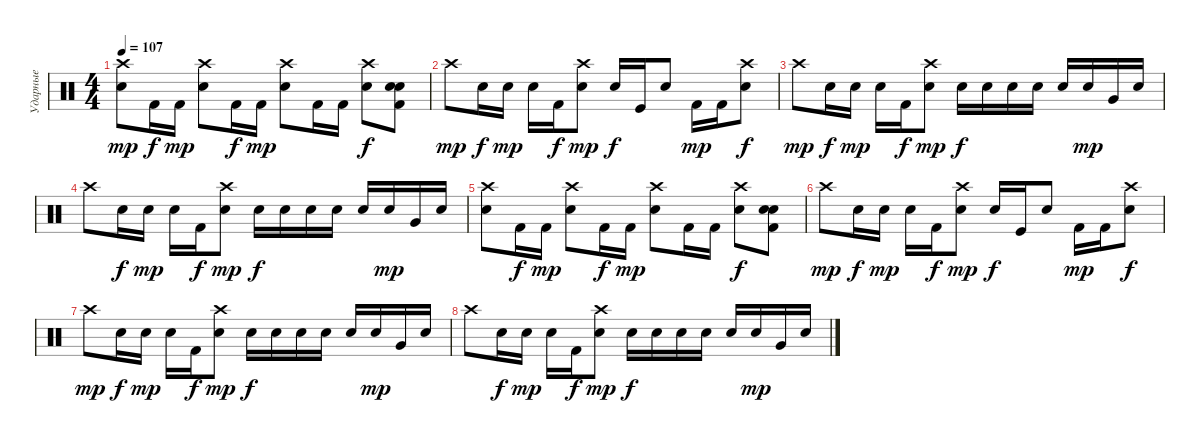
\track ("Ударные" "Ударные") {instrument percussion}
\staff {score}
\articulation defaults
\ts (4 4)
\tempo 107
\clef neutral
\ks c
("Crash high (hit)" "Snare (hit) 2").8{dy mp} "Kick (hit) 2".16{dy f} "Kick (hit) 2".16{dy mp} ("Crash high (hit)" "Snare (hit) 2").8 "Kick (hit) 2".16{dy f} "Kick (hit) 2".16{dy mp} ("Crash high (hit)" "Snare (hit) 2").8 "Kick (hit) 2".16 "Kick (hit) 2".16 ("Crash high (hit)" "Electric Snare (hit)").8{dy f} ("Electric Snare (hit)" "Snare (hit) 2" "Kick (hit) 2").8 |
"Crash high (hit)".8{dy mp} "Electric Snare (hit)".16{dy f} "Electric Snare (hit)".16{dy mp} "Electric Snare (hit)".16 "Kick (hit) 2".16{dy f} ("Crash high (hit)" "Snare (hit) 2").8{dy mp} "Electric Snare (hit)".16{dy f} "Kick (hit)".16 "Snare (hit) 2".8 "Kick (hit) 2".16{dy mp} "Kick (hit) 2".16 ("Crash high (hit)" "Electric Snare (hit)").8{dy f} |
"Crash high (hit)".8{dy mp} "Electric Snare (hit)".16{dy f} "Electric Snare (hit)".16{dy mp} "Electric Snare (hit)".16 "Kick (hit) 2".16{dy f} ("Crash high (hit)" "Snare (hit) 2").8{dy mp} "Electric Snare (hit)".16{dy f} "Electric Snare (hit)".16 "Electric Snare (hit)".16 "Electric Snare (hit)".16 "Snare (hit) 2".16 "Electric Snare (hit)".16{dy mp} "Very Low Tom (hit)".16 "Electric Snare (hit)".16 |
"Crash high (hit)".8 "Electric Snare (hit)".16{dy f} "Electric Snare (hit)".16{dy mp} "Electric Snare (hit)".16 "Kick (hit) 2".16{dy f} ("Crash high (hit)" "Snare (hit) 2").8{dy mp} "Electric Snare (hit)".16{dy f} "Electric Snare (hit)".16 "Electric Snare (hit)".16 "Electric Snare (hit)".16 "Snare (hit) 2".16 "Electric Snare (hit)".16{dy mp} "Very Low Tom (hit)".16 "Electric Snare (hit)".16 |
("Crash high (hit)" "Snare (hit) 2").8 "Kick (hit) 2".16{dy f} "Kick (hit) 2".16{dy mp} ("Crash high (hit)" "Snare (hit) 2").8 "Kick (hit) 2".16{dy f} "Kick (hit) 2".16{dy mp} ("Crash high (hit)" "Snare (hit) 2").8 "Kick (hit) 2".16 "Kick (hit) 2".16 ("Crash high (hit)" "Electric Snare (hit)").8{dy f} ("Electric Snare (hit)" "Snare (hit) 2" "Kick (hit) 2").8 |
"Crash high (hit)".8{dy mp} "Electric Snare (hit)".16{dy f} "Electric Snare (hit)".16{dy mp} "Electric Snare (hit)".16 "Kick (hit) 2".16{dy f} ("Crash high (hit)" "Snare (hit) 2").8{dy mp} "Electric Snare (hit)".16{dy f} "Kick (hit)".16 "Snare (hit) 2".8 "Kick (hit) 2".16{dy mp} "Kick (hit) 2".16 ("Crash high (hit)" "Electric Snare (hit)").8{dy f} |
"Crash high (hit)".8{dy mp} "Electric Snare (hit)".16{dy f} "Electric Snare (hit)".16{dy mp} "Electric Snare (hit)".16 "Kick (hit) 2".16{dy f} ("Crash high (hit)" "Snare (hit) 2").8{dy mp} "Electric Snare (hit)".16{dy f} "Electric Snare (hit)".16 "Electric Snare (hit)".16 "Electric Snare (hit)".16 "Snare (hit) 2".16 "Electric Snare (hit)".16{dy mp} "Very Low Tom (hit)".16 "Electric Snare (hit)".16 |
"Crash high (hit)".8 "Electric Snare (hit)".16{dy f} "Electric Snare (hit)".16{dy mp} "Electric Snare (hit)".16 "Kick (hit) 2".16{dy f} ("Crash high (hit)" "Snare (hit) 2").8{dy mp} "Electric Snare (hit)".16{dy f} "Electric Snare (hit)".16 "Electric Snare (hit)".16 "Electric Snare (hit)".16 "Snare (hit) 2".16 "Electric Snare (hit)".16{dy mp} "Very Low Tom (hit)".16 "Electric Snare (hit)".16
